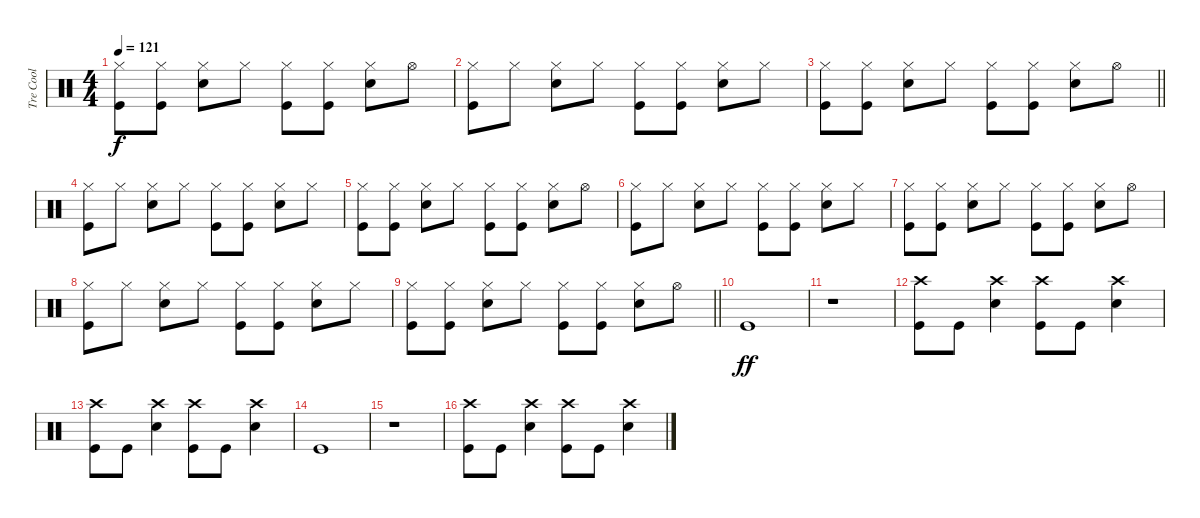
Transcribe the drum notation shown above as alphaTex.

\track ("Tre Cool" "Tre Cool") {instrument percussion}
\staff {score}
\articulation defaults
\ts (4 4)
\tempo 121
\clef neutral
\ks c
("Hi-Hat (closed)" "Kick (hit)").8{dy f} ("Hi-Hat (closed)" "Kick (hit)").8 ("Hi-Hat (closed)" "Snare (hit) 2").8 "Hi-Hat (closed)".8 ("Hi-Hat (closed)" "Kick (hit)").8 ("Hi-Hat (closed)" "Kick (hit)").8 ("Hi-Hat (closed)" "Snare (hit) 2").8 "Hi-Hat (open)".8 |
("Hi-Hat (closed)" "Kick (hit)").8 "Hi-Hat (closed)".8 ("Hi-Hat (closed)" "Snare (hit) 2").8 "Hi-Hat (closed)".8 ("Hi-Hat (closed)" "Kick (hit)").8 ("Hi-Hat (closed)" "Kick (hit)").8 ("Hi-Hat (closed)" "Snare (hit) 2").8 "Hi-Hat (closed)".8 |
\barLineRight lightlight
("Hi-Hat (closed)" "Kick (hit)").8 ("Hi-Hat (closed)" "Kick (hit)").8 ("Hi-Hat (closed)" "Snare (hit) 2").8 "Hi-Hat (closed)".8 ("Hi-Hat (closed)" "Kick (hit)").8 ("Hi-Hat (closed)" "Kick (hit)").8 ("Hi-Hat (closed)" "Snare (hit) 2").8 "Hi-Hat (open)".8 |
("Hi-Hat (closed)" "Kick (hit)").8 "Hi-Hat (closed)".8 ("Hi-Hat (closed)" "Snare (hit) 2").8 "Hi-Hat (closed)".8 ("Hi-Hat (closed)" "Kick (hit)").8 ("Hi-Hat (closed)" "Kick (hit)").8 ("Hi-Hat (closed)" "Snare (hit) 2").8 "Hi-Hat (closed)".8 |
("Hi-Hat (closed)" "Kick (hit)").8 ("Hi-Hat (closed)" "Kick (hit)").8 ("Hi-Hat (closed)" "Snare (hit) 2").8 "Hi-Hat (closed)".8 ("Hi-Hat (closed)" "Kick (hit)").8 ("Hi-Hat (closed)" "Kick (hit)").8 ("Hi-Hat (closed)" "Snare (hit) 2").8 "Hi-Hat (open)".8 |
("Hi-Hat (closed)" "Kick (hit)").8 "Hi-Hat (closed)".8 ("Hi-Hat (closed)" "Snare (hit) 2").8 "Hi-Hat (closed)".8 ("Hi-Hat (closed)" "Kick (hit)").8 ("Hi-Hat (closed)" "Kick (hit)").8 ("Hi-Hat (closed)" "Snare (hit) 2").8 "Hi-Hat (closed)".8 |
("Hi-Hat (closed)" "Kick (hit)").8 ("Hi-Hat (closed)" "Kick (hit)").8 ("Hi-Hat (closed)" "Snare (hit) 2").8 "Hi-Hat (closed)".8 ("Hi-Hat (closed)" "Kick (hit)").8 ("Hi-Hat (closed)" "Kick (hit)").8 ("Hi-Hat (closed)" "Snare (hit) 2").8 "Hi-Hat (open)".8 |
("Hi-Hat (closed)" "Kick (hit)").8 "Hi-Hat (closed)".8 ("Hi-Hat (closed)" "Snare (hit) 2").8 "Hi-Hat (closed)".8 ("Hi-Hat (closed)" "Kick (hit)").8 ("Hi-Hat (closed)" "Kick (hit)").8 ("Hi-Hat (closed)" "Snare (hit) 2").8 "Hi-Hat (closed)".8 |
\barLineRight lightlight
("Hi-Hat (closed)" "Kick (hit)").8 ("Hi-Hat (closed)" "Kick (hit)").8 ("Hi-Hat (closed)" "Snare (hit) 2").8 "Hi-Hat (closed)".8 ("Hi-Hat (closed)" "Kick (hit)").8 ("Hi-Hat (closed)" "Kick (hit)").8 ("Hi-Hat (closed)" "Snare (hit) 2").8 "Hi-Hat (open)".8 |
"Kick (hit)".1{dy ff} |
r.1 |
("Crash high (hit)" "Kick (hit)").8 "Kick (hit)".8 ("Crash high (hit)" "Snare (hit) 2").4 ("Crash high (hit)" "Kick (hit)").8 "Kick (hit)".8 ("Crash high (hit)" "Snare (hit) 2").4 |
("Crash high (hit)" "Kick (hit)").8 "Kick (hit)".8 ("Crash high (hit)" "Snare (hit) 2").4 ("Crash high (hit)" "Kick (hit)").8 "Kick (hit)".8 ("Crash high (hit)" "Snare (hit) 2").4 |
"Kick (hit)".1 |
r.1 |
("Crash high (hit)" "Kick (hit)").8 "Kick (hit)".8 ("Crash high (hit)" "Snare (hit) 2").4 ("Crash high (hit)" "Kick (hit)").8 "Kick (hit)".8 ("Crash high (hit)" "Snare (hit) 2").4
